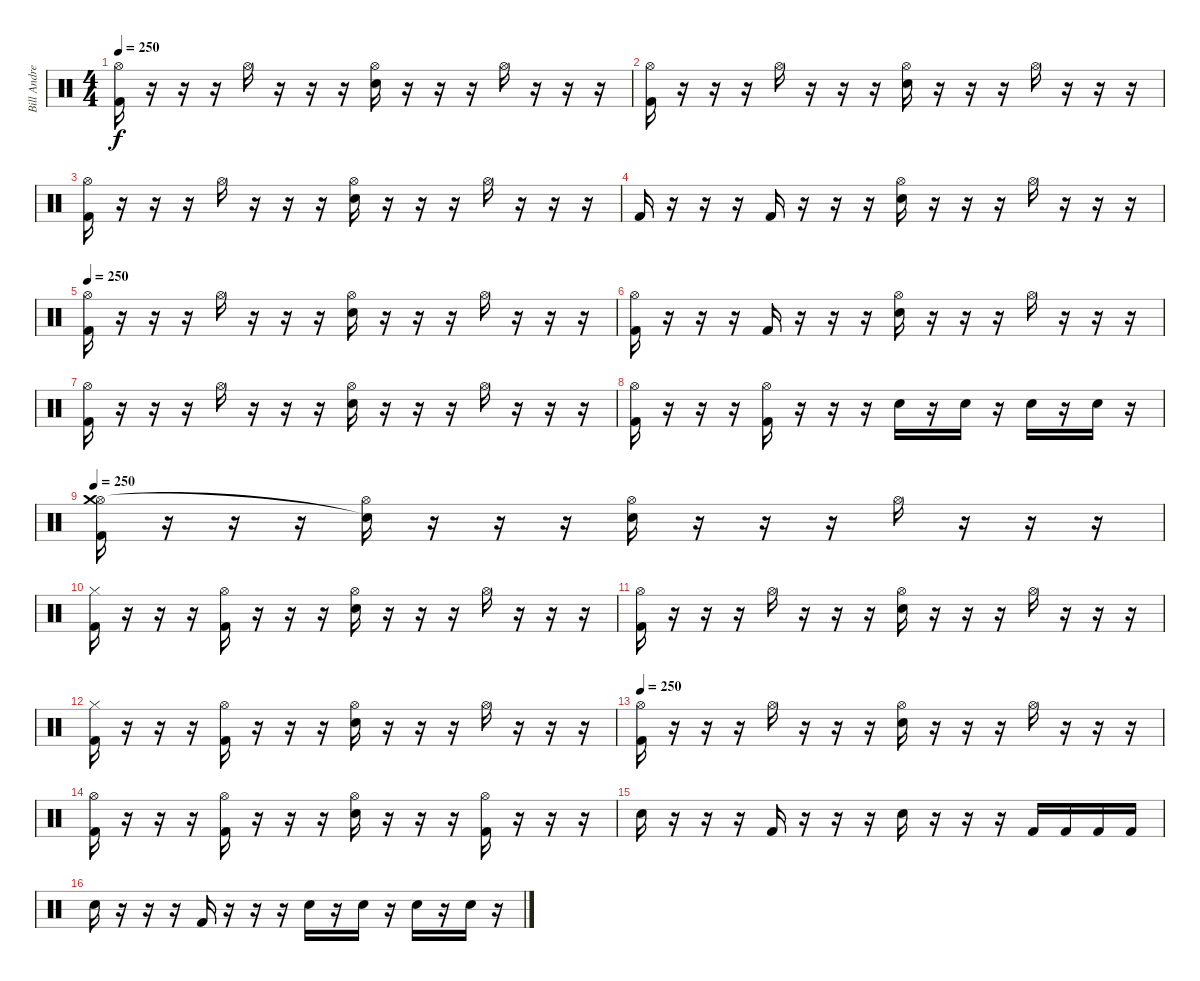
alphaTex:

\track ("Bill Andrews" "Bill Andre") {instrument percussion}
\staff {score}
\articulation defaults
\ts (4 4)
\tempo 250
\clef neutral
\ks c
("Hi-Hat (open)" "Kick (hit) 2").16{dy f} r.16 r.16 r.16 "Hi-Hat (open)".16 r.16 r.16 r.16 ("Hi-Hat (open)" "Snare (hit) 2").16 r.16 r.16 r.16 "Hi-Hat (open)".16 r.16 r.16 r.16 |
("Hi-Hat (open)" "Kick (hit) 2").16 r.16 r.16 r.16 "Hi-Hat (open)".16 r.16 r.16 r.16 ("Hi-Hat (open)" "Snare (hit) 2").16 r.16 r.16 r.16 "Hi-Hat (open)".16 r.16 r.16 r.16 |
("Hi-Hat (open)" "Kick (hit) 2").16 r.16 r.16 r.16 "Hi-Hat (open)".16 r.16 r.16 r.16 ("Hi-Hat (open)" "Snare (hit) 2").16 r.16 r.16 r.16 "Hi-Hat (open)".16 r.16 r.16 r.16 |
"Kick (hit) 2".16 r.16 r.16 r.16 "Kick (hit) 2".16 r.16 r.16 r.16 ("Hi-Hat (open)" "Snare (hit) 2").16 r.16 r.16 r.16 "Hi-Hat (open)".16 r.16 r.16 r.16 |
\tempo 250
("Hi-Hat (open)" "Kick (hit) 2").16 r.16 r.16 r.16 "Hi-Hat (open)".16 r.16 r.16 r.16 ("Hi-Hat (open)" "Snare (hit) 2").16 r.16 r.16 r.16 "Hi-Hat (open)".16 r.16 r.16 r.16 |
("Hi-Hat (open)" "Kick (hit) 2").16 r.16 r.16 r.16 "Kick (hit) 2".16 r.16 r.16 r.16 ("Hi-Hat (open)" "Snare (hit) 2").16 r.16 r.16 r.16 "Hi-Hat (open)".16 r.16 r.16 r.16 |
("Hi-Hat (open)" "Kick (hit) 2").16 r.16 r.16 r.16 "Hi-Hat (open)".16 r.16 r.16 r.16 ("Hi-Hat (open)" "Snare (hit) 2").16 r.16 r.16 r.16 "Hi-Hat (open)".16 r.16 r.16 r.16 |
("Hi-Hat (open)" "Kick (hit) 2").16 r.16 r.16 r.16 ("Hi-Hat (open)" "Kick (hit) 2").16 r.16 r.16 r.16 "Snare (hit) 2".16 r.16 "Snare (hit) 2".16 r.16 "Snare (hit) 2".16 r.16 "Snare (hit) 2".16 r.16 |
\tempo 250
("Hi-Hat (open)" "Crash medium (hit)" "Kick (hit) 2").16 r.16 r.16 r.16 ("Hi-Hat (open)" "Snare (hit)"{t}).16 r.16 r.16 r.16 ("Hi-Hat (open)" "Snare (hit) 2").16 r.16 r.16 r.16 "Hi-Hat (open)".16 r.16 r.16 r.16 |
("Hi-Hat (closed)" "Kick (hit) 2").16 r.16 r.16 r.16 ("Hi-Hat (open)" "Kick (hit) 2").16 r.16 r.16 r.16 ("Hi-Hat (open)" "Snare (hit) 2").16 r.16 r.16 r.16 "Hi-Hat (open)".16 r.16 r.16 r.16 |
("Hi-Hat (open)" "Kick (hit) 2").16 r.16 r.16 r.16 "Hi-Hat (open)".16 r.16 r.16 r.16 ("Hi-Hat (open)" "Snare (hit) 2").16 r.16 r.16 r.16 "Hi-Hat (open)".16 r.16 r.16 r.16 |
("Hi-Hat (closed)" "Kick (hit) 2").16 r.16 r.16 r.16 ("Hi-Hat (open)" "Kick (hit) 2").16 r.16 r.16 r.16 ("Hi-Hat (open)" "Snare (hit) 2").16 r.16 r.16 r.16 "Hi-Hat (open)".16 r.16 r.16 r.16 |
\tempo 250
("Hi-Hat (open)" "Kick (hit) 2").16 r.16 r.16 r.16 "Hi-Hat (open)".16 r.16 r.16 r.16 ("Hi-Hat (open)" "Snare (hit) 2").16 r.16 r.16 r.16 "Hi-Hat (open)".16 r.16 r.16 r.16 |
("Hi-Hat (open)" "Kick (hit) 2").16 r.16 r.16 r.16 ("Hi-Hat (open)" "Kick (hit) 2").16 r.16 r.16 r.16 ("Hi-Hat (open)" "Snare (hit) 2").16 r.16 r.16 r.16 ("Hi-Hat (open)" "Kick (hit) 2").16 r.16 r.16 r.16 |
"Snare (hit) 2".16 r.16 r.16 r.16 "Kick (hit) 2".16 r.16 r.16 r.16 "Snare (hit) 2".16 r.16 r.16 r.16 "Kick (hit) 2".16 "Kick (hit) 2".16 "Kick (hit) 2".16 "Kick (hit) 2".16 |
"Snare (hit) 2".16 r.16 r.16 r.16 "Kick (hit) 2".16 r.16 r.16 r.16 "Snare (hit) 2".16 r.16 "Snare (hit) 2".16 r.16 "Snare (hit) 2".16 r.16 "Snare (hit) 2".16 r.16
